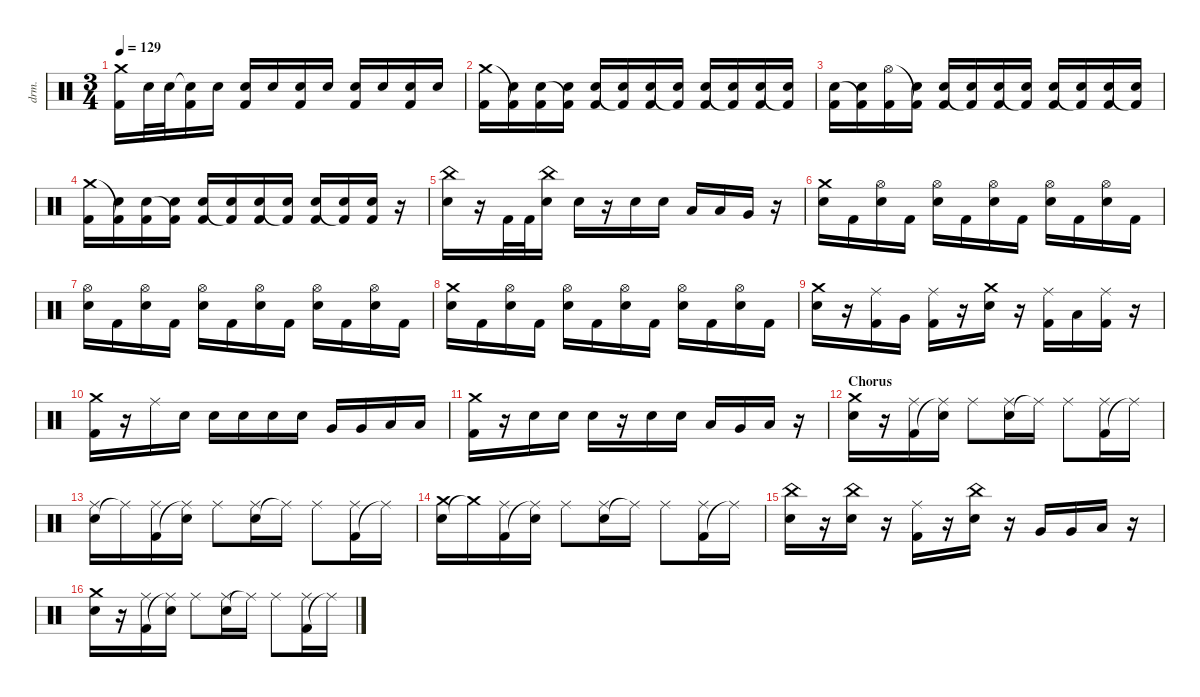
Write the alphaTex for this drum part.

\defaultSystemsLayout 4
\hideDynamics
\bracketExtendMode nobrackets
\otherSystemsTrackNameOrientation horizontal
\track ("Drumkit" "drm.") {instrument percussion}
\staff {score}
\articulation defaults
\ts (3 4)
\tempo 129
\clef neutral
\ks c
("Kick (hit) 2" "Crash medium (hit)").16{dy fff} "Snare (hit) 2".32 "Snare (hit) 2".32 ("Snare (hit) 2"{t} "Kick (hit) 2").16 "Snare (hit) 2".16 ("Kick (hit) 2" "Snare (hit) 2").16 "Snare (hit) 2".16 ("Kick (hit) 2" "Snare (hit) 2").16 "Snare (hit) 2".16 ("Kick (hit) 2" "Snare (hit) 2").16 "Snare (hit) 2".16 ("Kick (hit) 2" "Snare (hit) 2").16 "Snare (hit) 2".16 |
("Crash medium (hit)" "Kick (hit) 2").16 ("Kick (hit) 2"{t} "Snare (hit) 2").16 ("Snare (hit) 2" "Kick (hit) 2").16 ("Kick (hit) 2"{t} "Snare (hit) 2").16 ("Snare (hit) 2" "Kick (hit) 2").16 ("Kick (hit) 2"{t} "Snare (hit) 2").16 ("Snare (hit) 2" "Kick (hit) 2").16 ("Kick (hit) 2"{t} "Snare (hit) 2").16 ("Snare (hit) 2" "Kick (hit) 2").16 ("Kick (hit) 2"{t} "Snare (hit) 2").16 ("Snare (hit) 2" "Kick (hit) 2").16 ("Kick (hit) 2"{t} "Snare (hit) 2").16 |
("Snare (hit) 2" "Kick (hit) 2").16 ("Kick (hit) 2"{t} "Snare (hit) 2").16 ("Hi-Hat (open)"{acc #} "Kick (hit) 2").16 ("Kick (hit) 2"{t} "Snare (hit) 2").16 ("Snare (hit) 2" "Kick (hit) 2").16 ("Kick (hit) 2"{t} "Snare (hit) 2").16 ("Snare (hit) 2" "Kick (hit) 2").16 ("Kick (hit) 2"{t} "Snare (hit) 2").16 ("Snare (hit) 2" "Kick (hit) 2").16 ("Kick (hit) 2"{t} "Snare (hit) 2").16 ("Snare (hit) 2" "Kick (hit) 2").16 ("Kick (hit) 2"{t} "Snare (hit) 2").16 |
("Crash medium (hit)" "Kick (hit) 2").16 ("Kick (hit) 2"{t} "Snare (hit) 2").16 ("Snare (hit) 2" "Kick (hit) 2").16 ("Kick (hit) 2"{t} "Snare (hit) 2").16 ("Snare (hit) 2" "Kick (hit) 2").16 ("Kick (hit) 2"{t} "Snare (hit) 2").16 ("Snare (hit) 2" "Kick (hit) 2").16 ("Kick (hit) 2"{t} "Snare (hit) 2").16 ("Snare (hit) 2" "Kick (hit) 2").16 ("Kick (hit) 2"{t} "Snare (hit) 2").16 ("Kick (hit) 2" "Snare (hit) 2").16 r.16 |
("Snare (hit) 2" "China (hit)").16 r.16 "Kick (hit) 2".32 "Kick (hit) 2".32 ("Snare (hit) 2" "China (hit)").16 "Snare (hit) 2".16 r.16 "Snare (hit) 2".16 "Snare (hit) 2".16 "Low Tom (hit)".16 "Low Tom (hit)".16 "Very Low Tom (hit)".16 r.16 |
("Snare (hit) 2" "Crash medium (hit)").16 "Kick (hit) 2".16 ("Snare (hit) 2" "Hi-Hat (open)"{acc #}).16 "Kick (hit) 2".16 ("Snare (hit) 2" "Hi-Hat (open)"{acc #}).16 "Kick (hit) 2".16 ("Snare (hit) 2" "Hi-Hat (open)"{acc #}).16 "Kick (hit) 2".16 ("Snare (hit) 2" "Hi-Hat (open)"{acc #}).16 "Kick (hit) 2".16 ("Snare (hit) 2" "Hi-Hat (open)"{acc #}).16 "Kick (hit) 2".16 |
("Snare (hit) 2" "Hi-Hat (open)"{acc #}).16 "Kick (hit) 2".16 ("Snare (hit) 2" "Hi-Hat (open)"{acc #}).16 "Kick (hit) 2".16 ("Snare (hit) 2" "Hi-Hat (open)"{acc #}).16 "Kick (hit) 2".16 ("Snare (hit) 2" "Hi-Hat (open)"{acc #}).16 "Kick (hit) 2".16 ("Snare (hit) 2" "Hi-Hat (open)"{acc #}).16 "Kick (hit) 2".16 ("Snare (hit) 2" "Hi-Hat (open)"{acc #}).16 "Kick (hit) 2".16 |
("Snare (hit) 2" "Crash medium (hit)").16 "Kick (hit) 2".16 ("Snare (hit) 2" "Hi-Hat (open)"{acc #}).16 "Kick (hit) 2".16 ("Snare (hit) 2" "Hi-Hat (open)"{acc #}).16 "Kick (hit) 2".16 ("Snare (hit) 2" "Hi-Hat (open)"{acc #}).16 "Kick (hit) 2".16 ("Snare (hit) 2" "Hi-Hat (open)"{acc #}).16 "Kick (hit) 2".16 ("Snare (hit) 2" "Hi-Hat (open)"{acc #}).16 "Kick (hit) 2".16 |
("Snare (hit) 2" "Crash medium (hit)").16 r.16 ("Kick (hit) 2" "Ride (middle)"{acc #}).16 "Very Low Tom (hit)".16 ("Kick (hit) 2" "Ride (middle)"{acc #}).16 r.16 ("Snare (hit) 2" "Crash medium (hit)").16 r.16 ("Kick (hit) 2" "Ride (middle)"{acc #}).16 "Low Floor Tom (hit)".16 ("Kick (hit) 2" "Ride (middle)"{acc #}).16 r.16 |
("Kick (hit) 2" "Crash medium (hit)").16 r.16 "Ride (middle)"{acc #}.16 "Snare (hit) 2".16 "Snare (hit) 2".16 "Snare (hit) 2".16 "Snare (hit) 2".16 "Snare (hit) 2".16 "Very Low Tom (hit)".16 "Very Low Tom (hit)".16 "Low Floor Tom (hit)".16 "Low Floor Tom (hit)".16 |
("Kick (hit) 2" "Crash medium (hit)").16 r.16 "Snare (hit) 2".16 "Snare (hit) 2".16 "Snare (hit) 2".16 r.16 "Snare (hit) 2".16 "Snare (hit) 2".16 "Low Tom (hit)".16 "Very Low Tom (hit)".16 "Low Floor Tom (hit)".16 r.16 |
\section ("" "Chorus")
("Snare (hit) 2" "Crash medium (hit)").16 r.16 ("Kick (hit) 2" "Ride (middle)"{acc #}).16 ("Ride (middle)"{t acc #} "Snare (hit) 2").16 "Ride (middle)"{acc #}.8 ("Snare (hit) 2" "Ride (middle)"{acc #}).16 "Ride (middle)"{t acc #}.16 "Ride (middle)"{acc #}.8 ("Kick (hit) 2" "Ride (middle)"{acc #}).16 "Ride (middle)"{t acc #}.16 |
("Snare (hit) 2" "Ride (middle)"{acc #}).16 "Ride (middle)"{t acc #}.16 ("Kick (hit) 2" "Ride (middle)"{acc #}).16 ("Ride (middle)"{t acc #} "Snare (hit) 2").16 "Ride (middle)"{acc #}.8 ("Snare (hit) 2" "Ride (middle)"{acc #}).16 "Ride (middle)"{t acc #}.16 "Ride (middle)"{acc #}.8 ("Kick (hit) 2" "Ride (middle)"{acc #}).16 "Ride (middle)"{t acc #}.16 |
("Snare (hit) 2" "Crash medium (hit)").16 "Crash medium (hit)"{t}.16 ("Kick (hit) 2" "Ride (middle)"{acc #}).16 ("Ride (middle)"{t acc #} "Snare (hit) 2").16 "Ride (middle)"{acc #}.8 ("Snare (hit) 2" "Ride (middle)"{acc #}).16 "Ride (middle)"{t acc #}.16 "Ride (middle)"{acc #}.8 ("Kick (hit) 2" "Ride (middle)"{acc #}).16 "Ride (middle)"{t acc #}.16 |
("Snare (hit) 2" "China (hit)").16 r.16 ("Snare (hit) 2" "China (hit)").16 r.16 ("Kick (hit) 2" "Ride (middle)"{acc #}).16 r.16 ("Snare (hit) 2" "China (hit)").16 r.16 "Very Low Tom (hit)".16 "Very Low Tom (hit)".16 "Low Floor Tom (hit)".16 r.16 |
("Snare (hit) 2" "Crash medium (hit)").16 r.16 ("Kick (hit) 2" "Ride (middle)"{acc #}).16 ("Ride (middle)"{t acc #} "Snare (hit) 2").16 "Ride (middle)"{acc #}.8 ("Snare (hit) 2" "Ride (middle)"{acc #}).16 "Ride (middle)"{t acc #}.16 "Ride (middle)"{acc #}.8 ("Kick (hit) 2" "Ride (middle)"{acc #}).16 "Ride (middle)"{t acc #}.16
